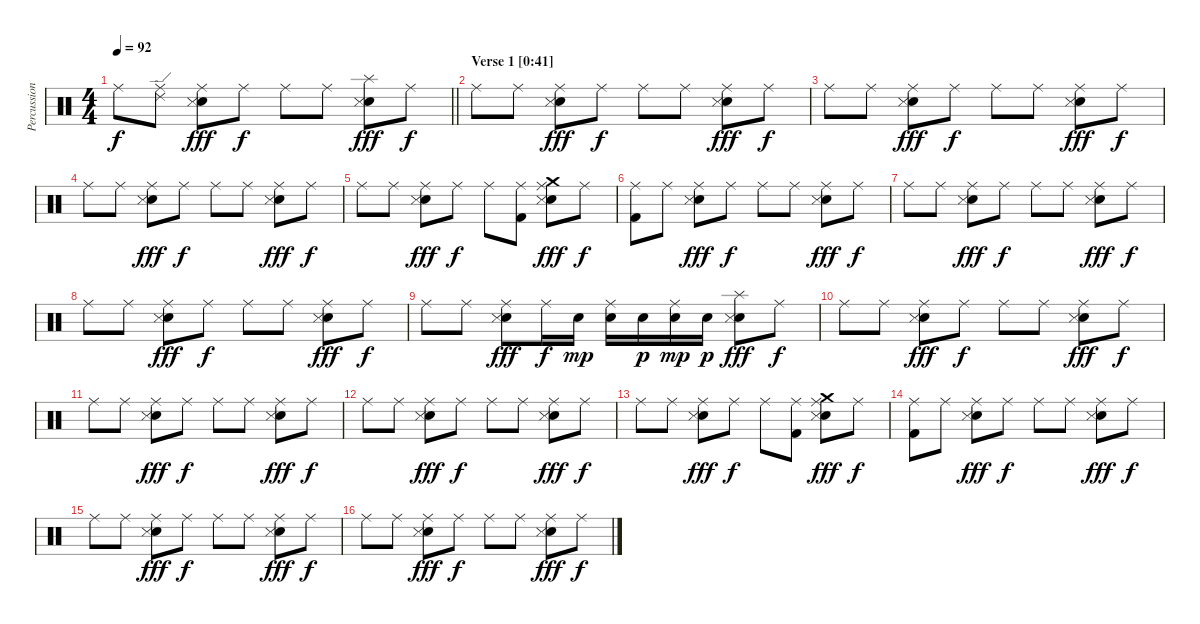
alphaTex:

\track ("Percussion" "Percussion") {instrument percussion}
\staff {score}
\articulation defaults
\ts (4 4)
\tempo 92
\clef neutral
\barLineRight lightlight
\ks c "Ride (middle)".8{dy f}
("Ride (edge) 2" "Ride (middle)").8 ("Ride (middle)" "Snare (hit) 2" "Snare (side stick) 3").8{dy fff} "Ride (middle)".8{dy f} "Ride (middle)".8 "Ride (middle)".8 ("Splash (hit)" "Snare (hit) 2" "Snare (side stick) 3").8{dy fff} "Ride (middle)".8{dy f} |
\section ("" "Verse 1 [0:41]")
"Ride (middle)".8 "Ride (middle)".8 ("Ride (middle)" "Snare (hit) 2" "Snare (side stick) 3").8{dy fff} "Ride (middle)".8{dy f} "Ride (middle)".8 "Ride (middle)".8 ("Ride (middle)" "Snare (hit) 2" "Snare (side stick) 3").8{dy fff} "Ride (middle)".8{dy f} |
"Ride (middle)".8 "Ride (middle)".8 ("Ride (middle)" "Snare (hit) 2" "Snare (side stick) 3").8{dy fff} "Ride (middle)".8{dy f} "Ride (middle)".8 "Ride (middle)".8 ("Ride (middle)" "Snare (hit) 2" "Snare (side stick) 3").8{dy fff} "Ride (middle)".8{dy f} |
"Ride (middle)".8 "Ride (middle)".8 ("Ride (middle)" "Snare (hit) 2" "Snare (side stick) 3").8{dy fff} "Ride (middle)".8{dy f} "Ride (middle)".8 "Ride (middle)".8 ("Ride (middle)" "Snare (hit) 2" "Snare (side stick) 3").8{dy fff} "Ride (middle)".8{dy f} |
"Ride (middle)".8 "Ride (middle)".8 ("Ride (middle)" "Snare (hit) 2" "Snare (side stick) 3").8{dy fff} "Ride (middle)".8{dy f} "Ride (middle)".8 ("Ride (middle)" "Kick (hit) 2").8 ("Crash medium (hit)" "Ride (middle)" "Snare (hit) 2" "Snare (side stick) 3").8{dy fff} "Ride (middle)".8{dy f} |
("Ride (middle)" "Kick (hit) 2").8 "Ride (middle)".8 ("Ride (middle)" "Snare (hit) 2" "Snare (side stick) 3").8{dy fff} "Ride (middle)".8{dy f} "Ride (middle)".8 "Ride (middle)".8 ("Ride (middle)" "Snare (hit) 2" "Snare (side stick) 3").8{dy fff} "Ride (middle)".8{dy f} |
"Ride (middle)".8 "Ride (middle)".8 ("Ride (middle)" "Snare (hit) 2" "Snare (side stick) 3").8{dy fff} "Ride (middle)".8{dy f} "Ride (middle)".8 "Ride (middle)".8 ("Ride (middle)" "Snare (hit) 2" "Snare (side stick) 3").8{dy fff} "Ride (middle)".8{dy f} |
"Ride (middle)".8 "Ride (middle)".8 ("Ride (middle)" "Snare (hit) 2" "Snare (side stick) 3").8{dy fff} "Ride (middle)".8{dy f} "Ride (middle)".8 "Ride (middle)".8 ("Ride (middle)" "Snare (hit) 2" "Snare (side stick) 3").8{dy fff} "Ride (middle)".8{dy f} |
"Ride (middle)".8 "Ride (middle)".8 ("Ride (middle)" "Snare (hit) 2" "Snare (side stick) 3").8{dy fff} "Ride (middle)".16{dy f} "Snare (hit) 2".16{dy mp} ("Ride (middle)" "Snare (hit) 2").16 "Snare (hit) 2".16{dy p} ("Ride (middle)" "Snare (hit) 2").16{dy mp} "Snare (hit) 2".16{dy p} ("Splash (hit)" "Snare (hit) 2" "Snare (side stick) 3").8{dy fff} "Ride (middle)".8{dy f} |
"Ride (middle)".8 "Ride (middle)".8 ("Ride (middle)" "Snare (hit) 2" "Snare (side stick) 3").8{dy fff} "Ride (middle)".8{dy f} "Ride (middle)".8 "Ride (middle)".8 ("Ride (middle)" "Snare (hit) 2" "Snare (side stick) 3").8{dy fff} "Ride (middle)".8{dy f} |
"Ride (middle)".8 "Ride (middle)".8 ("Ride (middle)" "Snare (hit) 2" "Snare (side stick) 3").8{dy fff} "Ride (middle)".8{dy f} "Ride (middle)".8 "Ride (middle)".8 ("Ride (middle)" "Snare (hit) 2" "Snare (side stick) 3").8{dy fff} "Ride (middle)".8{dy f} |
"Ride (middle)".8 "Ride (middle)".8 ("Ride (middle)" "Snare (hit) 2" "Snare (side stick) 3").8{dy fff} "Ride (middle)".8{dy f} "Ride (middle)".8 "Ride (middle)".8 ("Ride (middle)" "Snare (hit) 2" "Snare (side stick) 3").8{dy fff} "Ride (middle)".8{dy f} |
"Ride (middle)".8 "Ride (middle)".8 ("Ride (middle)" "Snare (hit) 2" "Snare (side stick) 3").8{dy fff} "Ride (middle)".8{dy f} "Ride (middle)".8 ("Ride (middle)" "Kick (hit) 2").8 ("Crash medium (hit)" "Ride (middle)" "Snare (hit) 2" "Snare (side stick) 3").8{dy fff} "Ride (middle)".8{dy f} |
("Ride (middle)" "Kick (hit) 2").8 "Ride (middle)".8 ("Ride (middle)" "Snare (hit) 2" "Snare (side stick) 3").8{dy fff} "Ride (middle)".8{dy f} "Ride (middle)".8 "Ride (middle)".8 ("Ride (middle)" "Snare (hit) 2" "Snare (side stick) 3").8{dy fff} "Ride (middle)".8{dy f} |
"Ride (middle)".8 "Ride (middle)".8 ("Ride (middle)" "Snare (hit) 2" "Snare (side stick) 3").8{dy fff} "Ride (middle)".8{dy f} "Ride (middle)".8 "Ride (middle)".8 ("Ride (middle)" "Snare (hit) 2" "Snare (side stick) 3").8{dy fff} "Ride (middle)".8{dy f} |
"Ride (middle)".8 "Ride (middle)".8 ("Ride (middle)" "Snare (hit) 2" "Snare (side stick) 3").8{dy fff} "Ride (middle)".8{dy f} "Ride (middle)".8 "Ride (middle)".8 ("Ride (middle)" "Snare (hit) 2" "Snare (side stick) 3").8{dy fff} "Ride (middle)".8{dy f}
